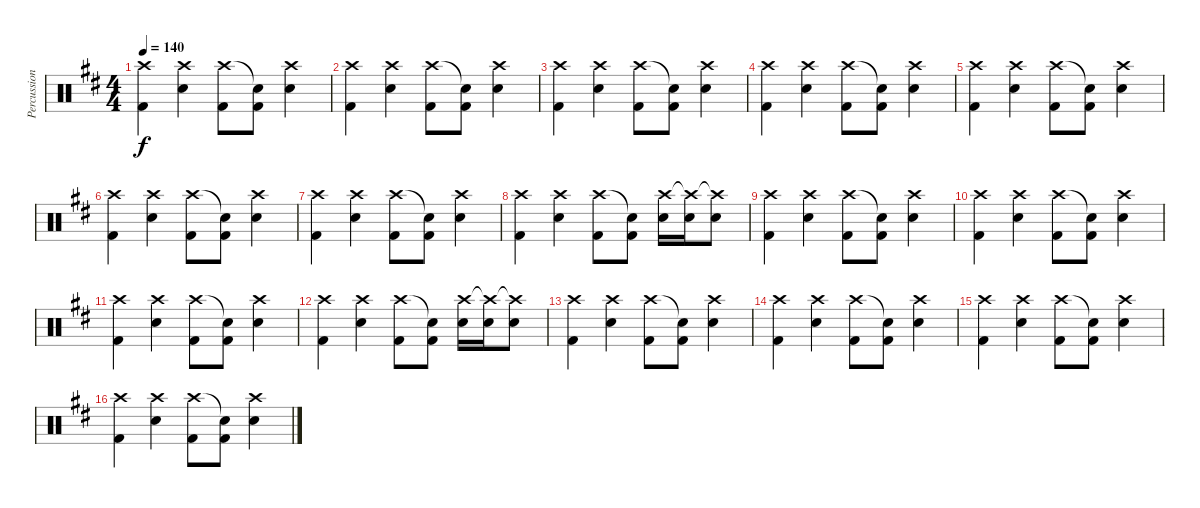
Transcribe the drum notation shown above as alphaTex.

\track ("Percussion" "Percussion") {instrument percussion}
\staff {score}
\articulation defaults
\ts (4 4)
\tempo 140
\clef neutral
\ks bminor
("Crash high (hit)" "Kick (hit) 2").4{dy f} ("Crash high (hit)" "Snare (hit) 2").4 ("Crash high (hit)" "Kick (hit) 2").8 ("Snare (hit)"{t} "Kick (hit) 2").8 ("Crash high (hit)" "Snare (hit) 2").4 |
("Crash high (hit)" "Kick (hit) 2").4 ("Crash high (hit)" "Snare (hit) 2").4 ("Crash high (hit)" "Kick (hit) 2").8 ("Snare (hit)"{t} "Kick (hit) 2").8 ("Crash high (hit)" "Snare (hit) 2").4 |
("Crash high (hit)" "Kick (hit) 2").4 ("Crash high (hit)" "Snare (hit) 2").4 ("Crash high (hit)" "Kick (hit) 2").8 ("Snare (hit)"{t} "Kick (hit) 2").8 ("Crash high (hit)" "Snare (hit) 2").4 |
("Crash high (hit)" "Kick (hit) 2").4 ("Crash high (hit)" "Snare (hit) 2").4 ("Crash high (hit)" "Kick (hit) 2").8 ("Snare (hit)"{t} "Kick (hit) 2").8 ("Crash high (hit)" "Snare (hit) 2").4 |
("Crash high (hit)" "Kick (hit) 2").4 ("Crash high (hit)" "Snare (hit) 2").4 ("Crash high (hit)" "Kick (hit) 2").8 ("Snare (hit)"{t} "Kick (hit) 2").8 ("Crash high (hit)" "Snare (hit) 2").4 |
("Crash high (hit)" "Kick (hit) 2").4 ("Crash high (hit)" "Snare (hit) 2").4 ("Crash high (hit)" "Kick (hit) 2").8 ("Snare (hit)"{t} "Kick (hit) 2").8 ("Crash high (hit)" "Snare (hit) 2").4 |
("Crash high (hit)" "Kick (hit) 2").4 ("Crash high (hit)" "Snare (hit) 2").4 ("Crash high (hit)" "Kick (hit) 2").8 ("Snare (hit)"{t} "Kick (hit) 2").8 ("Crash high (hit)" "Snare (hit) 2").4 |
("Crash high (hit)" "Kick (hit) 2").4 ("Crash high (hit)" "Snare (hit) 2").4 ("Crash high (hit)" "Kick (hit) 2").8 ("Snare (hit)"{t} "Kick (hit) 2").8 ("Crash high (hit)" "Snare (hit) 2").16 ("Crash high (hit)"{t} "Snare (hit) 2").16 ("Crash high (hit)"{t} "Snare (hit) 2").8 |
("Crash high (hit)" "Kick (hit) 2").4 ("Crash high (hit)" "Snare (hit) 2").4 ("Crash high (hit)" "Kick (hit) 2").8 ("Snare (hit)"{t} "Kick (hit) 2").8 ("Crash high (hit)" "Snare (hit) 2").4 |
("Crash high (hit)" "Kick (hit) 2").4 ("Crash high (hit)" "Snare (hit) 2").4 ("Crash high (hit)" "Kick (hit) 2").8 ("Snare (hit)"{t} "Kick (hit) 2").8 ("Crash high (hit)" "Snare (hit) 2").4 |
("Crash high (hit)" "Kick (hit) 2").4 ("Crash high (hit)" "Snare (hit) 2").4 ("Crash high (hit)" "Kick (hit) 2").8 ("Snare (hit)"{t} "Kick (hit) 2").8 ("Crash high (hit)" "Snare (hit) 2").4 |
("Crash high (hit)" "Kick (hit) 2").4 ("Crash high (hit)" "Snare (hit) 2").4 ("Crash high (hit)" "Kick (hit) 2").8 ("Snare (hit)"{t} "Kick (hit) 2").8 ("Crash high (hit)" "Snare (hit) 2").16 ("Crash high (hit)"{t} "Snare (hit) 2").16 ("Crash high (hit)"{t} "Snare (hit) 2").8 |
("Crash high (hit)" "Kick (hit) 2").4 ("Crash high (hit)" "Snare (hit) 2").4 ("Crash high (hit)" "Kick (hit) 2").8 ("Snare (hit)"{t} "Kick (hit) 2").8 ("Crash high (hit)" "Snare (hit) 2").4 |
("Crash high (hit)" "Kick (hit) 2").4 ("Crash high (hit)" "Snare (hit) 2").4 ("Crash high (hit)" "Kick (hit) 2").8 ("Snare (hit)"{t} "Kick (hit) 2").8 ("Crash high (hit)" "Snare (hit) 2").4 |
("Crash high (hit)" "Kick (hit) 2").4 ("Crash high (hit)" "Snare (hit) 2").4 ("Crash high (hit)" "Kick (hit) 2").8 ("Snare (hit)"{t} "Kick (hit) 2").8 ("Crash high (hit)" "Snare (hit) 2").4 |
("Crash high (hit)" "Kick (hit) 2").4 ("Crash high (hit)" "Snare (hit) 2").4 ("Crash high (hit)" "Kick (hit) 2").8 ("Snare (hit)"{t} "Kick (hit) 2").8 ("Crash high (hit)" "Snare (hit) 2").4
